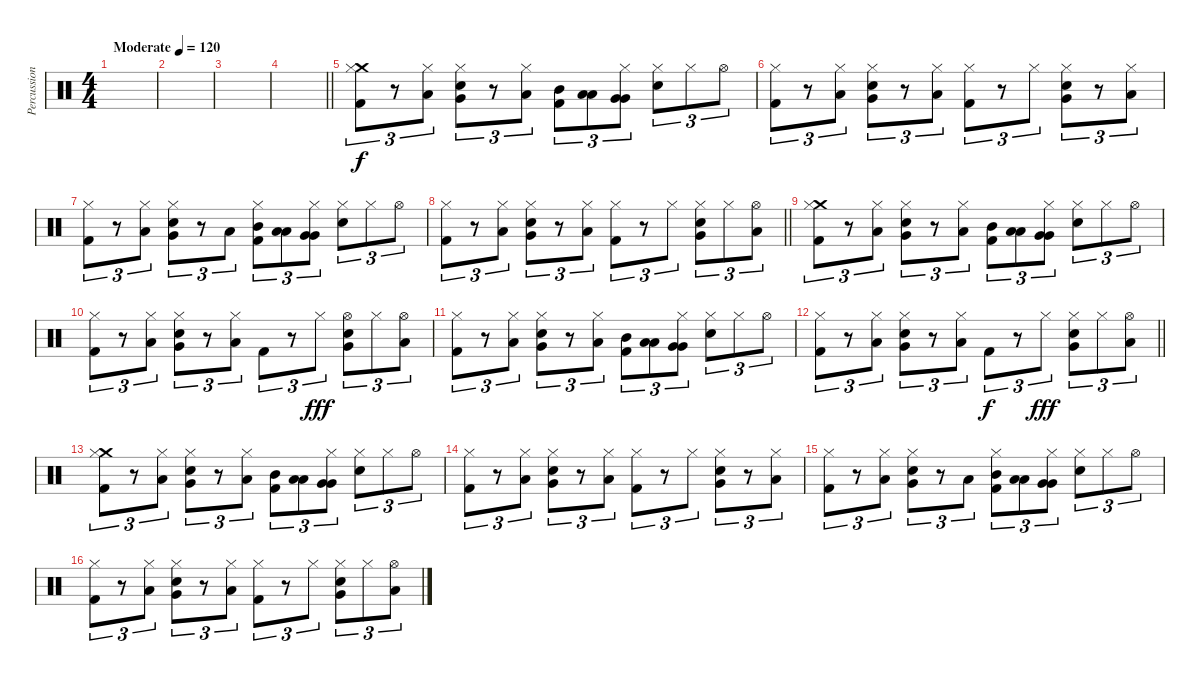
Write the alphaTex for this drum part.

\track ("Percussion" "Percussion") {instrument percussion}
\staff {score}
\articulation defaults
\ts (4 4)
\tempo (120 "Moderate")
\clef neutral
\ks c
|
|
|
\barLineRight lightlight
|
\section ("" "")
("Crash medium (hit)" "Hi-Hat (closed)" "Kick (hit) 2").8{tu (3 2)} r.8{tu (3 2)} ("Low Tom (hit)" "Hi-Hat (closed)").8{tu (3 2)} ("Very Low Tom (hit)" "Hi-Hat (closed)" "Snare (hit) 2").8{tu (3 2)} r.8{tu (3 2)} ("Low Tom (hit)" "Hi-Hat (closed)").8{tu (3 2)} ("Mid Tom (hit)" "Kick (hit) 2").8{tu (3 2)} ("Low Tom (hit)" "Low Tom (hit)").8{tu (3 2)} ("Very Low Tom (hit)" "Very Low Tom (hit)" "Hi-Hat (closed)").8{tu (3 2)} ("Hi-Hat (closed)" "Snare (hit) 2").8{tu (3 2)} "Hi-Hat (closed)".8{tu (3 2)} "Hi-Hat (open)".8{tu (3 2)} |
("Hi-Hat (closed)" "Kick (hit) 2").8{tu (3 2)} r.8{tu (3 2)} ("Low Tom (hit)" "Hi-Hat (closed)").8{tu (3 2)} ("Very Low Tom (hit)" "Hi-Hat (closed)" "Snare (hit) 2").8{tu (3 2)} r.8{tu (3 2)} ("Low Tom (hit)" "Hi-Hat (closed)").8{tu (3 2)} ("Hi-Hat (closed)" "Kick (hit) 2").8{tu (3 2)} r.8{tu (3 2)} "Hi-Hat (closed)".8{tu (3 2)} ("Very Low Tom (hit)" "Hi-Hat (closed)" "Snare (hit) 2").8{tu (3 2)} r.8{tu (3 2)} ("Low Tom (hit)" "Hi-Hat (closed)").8{tu (3 2)} |
("Hi-Hat (closed)" "Kick (hit) 2").8{tu (3 2)} r.8{tu (3 2)} ("Low Tom (hit)" "Hi-Hat (closed)").8{tu (3 2)} ("Very Low Tom (hit)" "Hi-Hat (closed)" "Snare (hit) 2").8{tu (3 2)} r.8{tu (3 2)} "Low Tom (hit)".8{tu (3 2)} ("Mid Tom (hit)" "Hi-Hat (closed)" "Kick (hit) 2").8{tu (3 2)} ("Low Tom (hit)" "Low Tom (hit)").8{tu (3 2)} ("Very Low Tom (hit)" "Very Low Tom (hit)" "Hi-Hat (closed)").8{tu (3 2)} ("Hi-Hat (closed)" "Snare (hit) 2").8{tu (3 2)} "Hi-Hat (closed)".8{tu (3 2)} "Hi-Hat (open)".8{tu (3 2)} |
\barLineRight lightlight
("Hi-Hat (closed)" "Kick (hit) 2").8{tu (3 2)} r.8{tu (3 2)} ("Low Tom (hit)" "Hi-Hat (closed)").8{tu (3 2)} ("Very Low Tom (hit)" "Hi-Hat (closed)" "Snare (hit) 2").8{tu (3 2)} r.8{tu (3 2)} ("Low Tom (hit)" "Hi-Hat (closed)").8{tu (3 2)} ("Hi-Hat (closed)" "Kick (hit) 2").8{tu (3 2)} r.8{tu (3 2)} "Hi-Hat (closed)".8{tu (3 2)} ("Very Low Tom (hit)" "Hi-Hat (closed)" "Snare (hit) 2").8{tu (3 2)} "Hi-Hat (closed)".8{tu (3 2)} ("Low Tom (hit)" "Hi-Hat (open)").8{tu (3 2)} |
\section ("" "")
("Crash medium (hit)" "Hi-Hat (closed)" "Kick (hit) 2").8{tu (3 2)} r.8{tu (3 2)} ("Low Tom (hit)" "Hi-Hat (closed)").8{tu (3 2)} ("Very Low Tom (hit)" "Hi-Hat (closed)" "Snare (hit) 2").8{tu (3 2)} r.8{tu (3 2)} ("Low Tom (hit)" "Hi-Hat (closed)").8{tu (3 2)} ("Mid Tom (hit)" "Kick (hit) 2").8{tu (3 2)} ("Low Tom (hit)" "Low Tom (hit)").8{tu (3 2)} ("Very Low Tom (hit)" "Very Low Tom (hit)" "Hi-Hat (closed)").8{tu (3 2)} ("Hi-Hat (closed)" "Snare (hit) 2").8{tu (3 2)} "Hi-Hat (closed)".8{tu (3 2)} "Hi-Hat (open)".8{tu (3 2)} |
("Hi-Hat (closed)" "Kick (hit) 2").8{tu (3 2)} r.8{tu (3 2)} ("Low Tom (hit)" "Hi-Hat (closed)").8{tu (3 2)} ("Very Low Tom (hit)" "Hi-Hat (closed)" "Snare (hit) 2").8{tu (3 2)} r.8{tu (3 2)} ("Low Tom (hit)" "Hi-Hat (closed)").8{tu (3 2)} "Kick (hit) 2".8{tu (3 2) dy f} r.8{tu (3 2)} "Hi-Hat (closed)".8{tu (3 2) dy fff} ("Very Low Tom (hit)" "Hi-Hat (open)" "Snare (hit) 2").8{tu (3 2)} "Hi-Hat (closed)".8{tu (3 2)} ("Low Tom (hit)" "Hi-Hat (open)").8{tu (3 2)} |
("Hi-Hat (closed)" "Kick (hit) 2").8{tu (3 2)} r.8{tu (3 2)} ("Low Tom (hit)" "Hi-Hat (closed)").8{tu (3 2)} ("Very Low Tom (hit)" "Hi-Hat (closed)" "Snare (hit) 2").8{tu (3 2)} r.8{tu (3 2)} ("Low Tom (hit)" "Hi-Hat (closed)").8{tu (3 2)} ("Mid Tom (hit)" "Kick (hit) 2").8{tu (3 2)} ("Low Tom (hit)" "Low Tom (hit)").8{tu (3 2)} ("Very Low Tom (hit)" "Very Low Tom (hit)" "Hi-Hat (closed)").8{tu (3 2)} ("Hi-Hat (closed)" "Snare (hit) 2").8{tu (3 2)} "Hi-Hat (closed)".8{tu (3 2)} "Hi-Hat (open)".8{tu (3 2)} |
\barLineRight lightlight
("Hi-Hat (closed)" "Kick (hit) 2").8{tu (3 2)} r.8{tu (3 2)} ("Low Tom (hit)" "Hi-Hat (closed)").8{tu (3 2)} ("Very Low Tom (hit)" "Hi-Hat (closed)" "Snare (hit) 2").8{tu (3 2)} r.8{tu (3 2)} ("Low Tom (hit)" "Hi-Hat (closed)").8{tu (3 2)} "Kick (hit) 2".8{tu (3 2) dy f} r.8{tu (3 2)} "Hi-Hat (closed)".8{tu (3 2) dy fff} ("Very Low Tom (hit)" "Hi-Hat (closed)" "Snare (hit) 2").8{tu (3 2)} "Hi-Hat (closed)".8{tu (3 2)} ("Low Tom (hit)" "Hi-Hat (open)").8{tu (3 2)} |
\section ("" "")
("Crash medium (hit)" "Hi-Hat (closed)" "Kick (hit) 2").8{tu (3 2)} r.8{tu (3 2)} ("Low Tom (hit)" "Hi-Hat (closed)").8{tu (3 2)} ("Very Low Tom (hit)" "Hi-Hat (closed)" "Snare (hit) 2").8{tu (3 2)} r.8{tu (3 2)} ("Low Tom (hit)" "Hi-Hat (closed)").8{tu (3 2)} ("Mid Tom (hit)" "Kick (hit) 2").8{tu (3 2)} ("Low Tom (hit)" "Low Tom (hit)").8{tu (3 2)} ("Very Low Tom (hit)" "Very Low Tom (hit)" "Hi-Hat (closed)").8{tu (3 2)} ("Hi-Hat (closed)" "Snare (hit) 2").8{tu (3 2)} "Hi-Hat (closed)".8{tu (3 2)} "Hi-Hat (open)".8{tu (3 2)} |
("Hi-Hat (closed)" "Kick (hit) 2").8{tu (3 2)} r.8{tu (3 2)} ("Low Tom (hit)" "Hi-Hat (closed)").8{tu (3 2)} ("Very Low Tom (hit)" "Hi-Hat (closed)" "Snare (hit) 2").8{tu (3 2)} r.8{tu (3 2)} ("Low Tom (hit)" "Hi-Hat (closed)").8{tu (3 2)} ("Hi-Hat (closed)" "Kick (hit) 2").8{tu (3 2)} r.8{tu (3 2)} "Hi-Hat (closed)".8{tu (3 2)} ("Very Low Tom (hit)" "Hi-Hat (closed)" "Snare (hit) 2").8{tu (3 2)} r.8{tu (3 2)} ("Low Tom (hit)" "Hi-Hat (closed)").8{tu (3 2)} |
("Hi-Hat (closed)" "Kick (hit) 2").8{tu (3 2)} r.8{tu (3 2)} ("Low Tom (hit)" "Hi-Hat (closed)").8{tu (3 2)} ("Very Low Tom (hit)" "Hi-Hat (closed)" "Snare (hit) 2").8{tu (3 2)} r.8{tu (3 2)} "Low Tom (hit)".8{tu (3 2)} ("Mid Tom (hit)" "Hi-Hat (closed)" "Kick (hit) 2").8{tu (3 2)} ("Low Tom (hit)" "Low Tom (hit)").8{tu (3 2)} ("Very Low Tom (hit)" "Very Low Tom (hit)" "Hi-Hat (closed)").8{tu (3 2)} ("Hi-Hat (closed)" "Snare (hit) 2").8{tu (3 2)} "Hi-Hat (closed)".8{tu (3 2)} "Hi-Hat (open)".8{tu (3 2)} |
("Hi-Hat (closed)" "Kick (hit) 2").8{tu (3 2)} r.8{tu (3 2)} ("Low Tom (hit)" "Hi-Hat (closed)").8{tu (3 2)} ("Very Low Tom (hit)" "Hi-Hat (closed)" "Snare (hit) 2").8{tu (3 2)} r.8{tu (3 2)} ("Low Tom (hit)" "Hi-Hat (closed)").8{tu (3 2)} ("Hi-Hat (closed)" "Kick (hit) 2").8{tu (3 2)} r.8{tu (3 2)} "Hi-Hat (closed)".8{tu (3 2)} ("Very Low Tom (hit)" "Hi-Hat (closed)" "Snare (hit) 2").8{tu (3 2)} "Hi-Hat (closed)".8{tu (3 2)} ("Low Tom (hit)" "Hi-Hat (open)").8{tu (3 2)}
